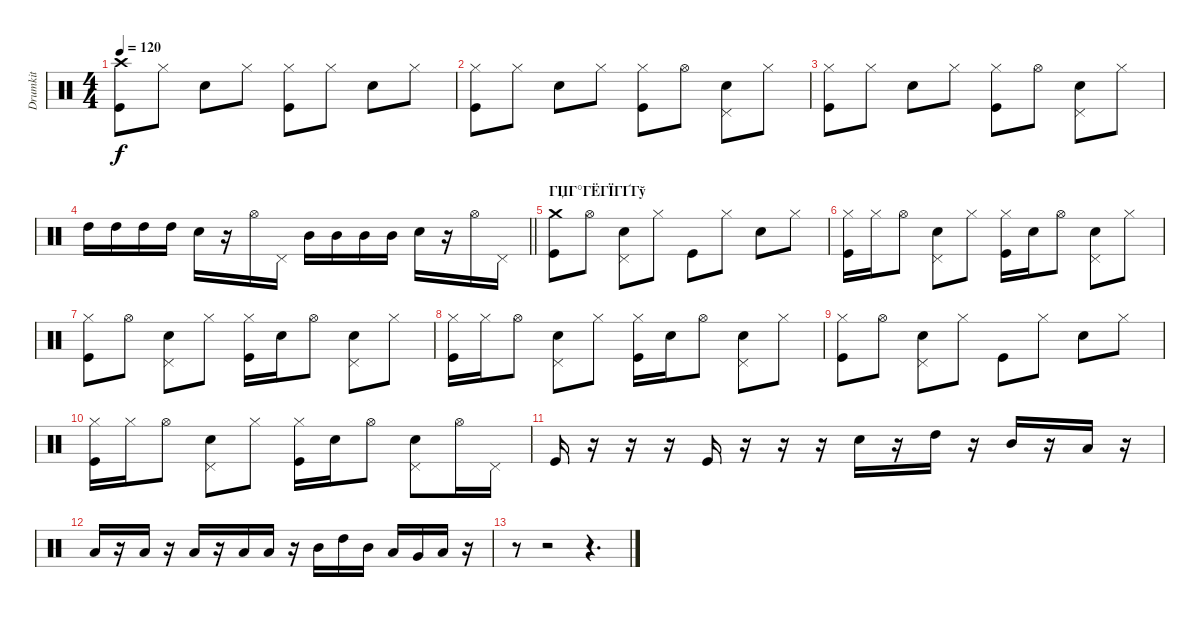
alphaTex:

\track ("Drumkit" "Drumkit") {instrument percussion}
\staff {score}
\articulation defaults
\ts (4 4)
\tempo 120
\clef neutral
\ks c
("Crash high (hit)" "Kick (hit)").8{dy f} "Hi-Hat (closed)".8 "Snare (hit) 2".8 "Hi-Hat (closed)".8 ("Hi-Hat (closed)" "Kick (hit)").8 "Hi-Hat (closed)".8 "Snare (hit) 2".8 "Hi-Hat (closed)".8 |
("Hi-Hat (closed)" "Kick (hit)").8 "Hi-Hat (closed)".8 "Snare (hit) 2".8 "Hi-Hat (closed)".8 ("Hi-Hat (closed)" "Kick (hit)").8 "Hi-Hat (open)".8 ("Pedal Hi-Hat (hit)" "Snare (hit) 2").8 "Hi-Hat (closed)".8 |
("Hi-Hat (closed)" "Kick (hit)").8 "Hi-Hat (closed)".8 "Snare (hit) 2".8 "Hi-Hat (closed)".8 ("Hi-Hat (closed)" "Kick (hit)").8 "Hi-Hat (open)".8 ("Pedal Hi-Hat (hit)" "Snare (hit) 2").8 "Hi-Hat (closed)".8 |
\barLineRight lightlight "High Tom (hit)".16 "High Tom (hit)".16 "High Tom (hit)".16 "High Tom (hit)".16 "Snare (hit) 2".16
r.16 "Hi-Hat (open)".16 "Pedal Hi-Hat (hit)".16 "Mid Tom (hit)".16 "Mid Tom (hit)".16 "Mid Tom (hit)".16 "Mid Tom (hit)".16 "Snare (hit) 2".16 r.16 "Hi-Hat (open)".16 "Pedal Hi-Hat (hit)".16 |
\section ("" "ГЏГ°ГЁГЇГҐГў")
("Crash medium (hit)" "Kick (hit)").8 "Hi-Hat (open)".8 ("Pedal Hi-Hat (hit)" "Snare (hit) 2").8 "Hi-Hat (closed)".8 "Kick (hit)".8 "Hi-Hat (closed)".8 "Snare (hit) 2".8 "Hi-Hat (closed)".8 |
("Hi-Hat (closed)" "Kick (hit)").16 "Hi-Hat (closed)".16 "Hi-Hat (open)".8 ("Pedal Hi-Hat (hit)" "Snare (hit) 2").8 "Hi-Hat (closed)".8 ("Hi-Hat (closed)" "Kick (hit)").16 "Snare (hit) 2".16 "Hi-Hat (open)".8 ("Pedal Hi-Hat (hit)" "Snare (hit) 2").8 "Hi-Hat (closed)".8 |
("Hi-Hat (closed)" "Kick (hit)").8 "Hi-Hat (open)".8 ("Pedal Hi-Hat (hit)" "Snare (hit) 2").8 "Hi-Hat (closed)".8 ("Hi-Hat (closed)" "Kick (hit)").16 "Snare (hit) 2".16 "Hi-Hat (open)".8 ("Pedal Hi-Hat (hit)" "Snare (hit) 2").8 "Hi-Hat (closed)".8 |
("Hi-Hat (closed)" "Kick (hit)").16 "Hi-Hat (closed)".16 "Hi-Hat (open)".8 ("Pedal Hi-Hat (hit)" "Snare (hit) 2").8 "Hi-Hat (closed)".8 ("Hi-Hat (closed)" "Kick (hit)").16 "Snare (hit) 2".16 "Hi-Hat (open)".8 ("Pedal Hi-Hat (hit)" "Snare (hit) 2").8 "Hi-Hat (closed)".8 |
("Hi-Hat (closed)" "Kick (hit)").8 "Hi-Hat (open)".8 ("Pedal Hi-Hat (hit)" "Snare (hit) 2").8 "Hi-Hat (closed)".8 "Kick (hit)".8 "Hi-Hat (closed)".8 "Snare (hit) 2".8 "Hi-Hat (closed)".8 |
("Hi-Hat (closed)" "Kick (hit)").16 "Hi-Hat (closed)".16 "Hi-Hat (open)".8 ("Pedal Hi-Hat (hit)" "Snare (hit) 2").8 "Hi-Hat (closed)".8 ("Hi-Hat (closed)" "Kick (hit)").16 "Snare (hit) 2".16 "Hi-Hat (open)".8 ("Pedal Hi-Hat (hit)" "Snare (hit) 2").8 "Hi-Hat (open)".16 "Pedal Hi-Hat (hit)".16 |
"Kick (hit)".16 r.16 r.16 r.16 "Kick (hit)".16 r.16 r.16 r.16 "Snare (hit) 2".16 r.16 "High Tom (hit)".16 r.16 "Mid Tom (hit)".16 r.16 "Low Tom (hit)".16 r.16 |
"Low Tom (hit)".16 r.16 "Low Tom (hit)".16 r.16 "Low Tom (hit)".16 r.16 "Low Tom (hit)".16 "Low Tom (hit)".16 r.16 "Mid Tom (hit)".16 "High Tom (hit)".16 "Mid Tom (hit)".16 "Low Tom (hit)".16 "Very Low Tom (hit)".16 "Low Floor Tom (hit)".16 r.16 |
r.8 r.2 r.4{d}
